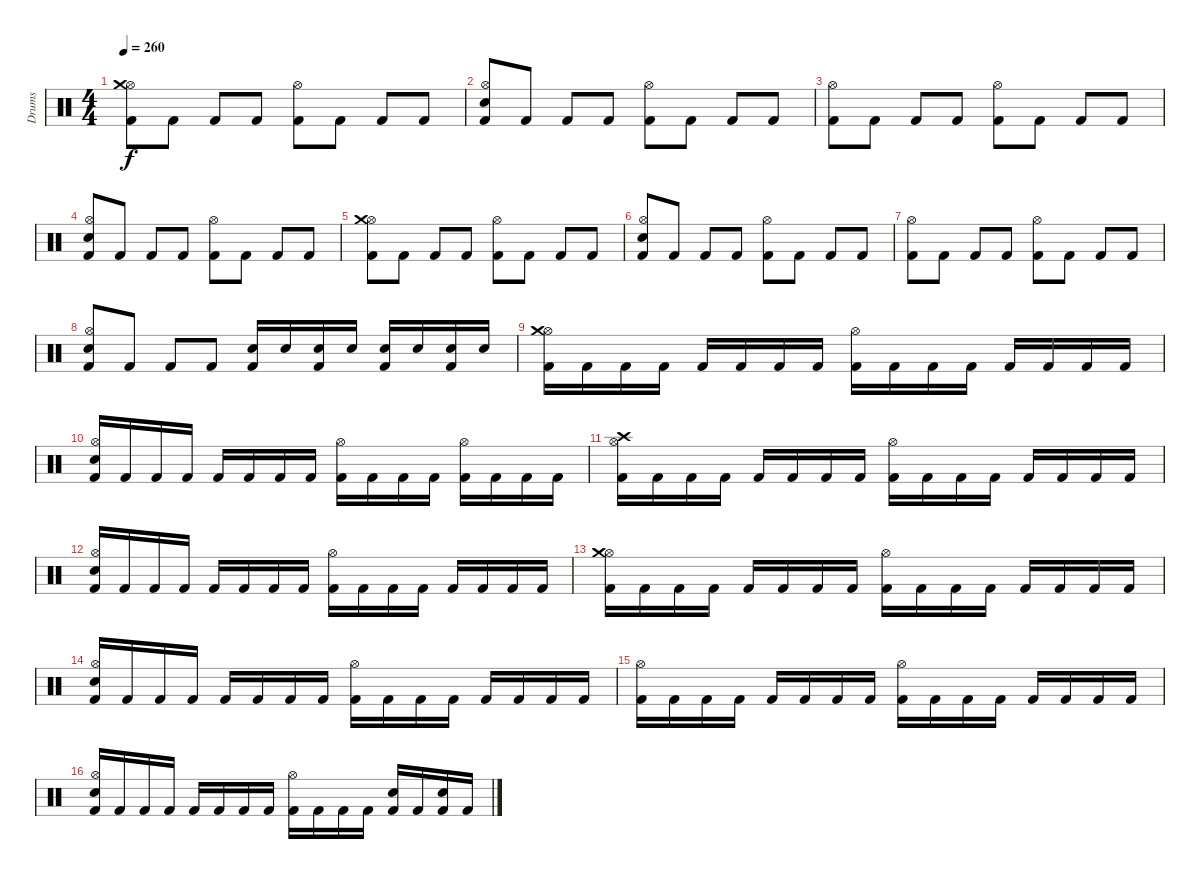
\track ("Drums" "Drums") {instrument percussion}
\staff {score}
\articulation defaults
\ts (4 4)
\tempo 260
\clef neutral
\ks c
("Kick (hit) 2" "Hi-Hat (open)" "Crash medium (hit)").8{dy f} "Kick (hit) 2".8 "Kick (hit) 2".8 "Kick (hit) 2".8 ("Kick (hit) 2" "Hi-Hat (open)").8 "Kick (hit) 2".8 "Kick (hit) 2".8 "Kick (hit) 2".8 |
("Kick (hit) 2" "Electric Snare (hit)" "Hi-Hat (open)").8 "Kick (hit) 2".8 "Kick (hit) 2".8 "Kick (hit) 2".8 ("Kick (hit) 2" "Hi-Hat (open)").8 "Kick (hit) 2".8 "Kick (hit) 2".8 "Kick (hit) 2".8 |
("Kick (hit) 2" "Hi-Hat (open)").8 "Kick (hit) 2".8 "Kick (hit) 2".8 "Kick (hit) 2".8 ("Kick (hit) 2" "Hi-Hat (open)").8 "Kick (hit) 2".8 "Kick (hit) 2".8 "Kick (hit) 2".8 |
("Kick (hit) 2" "Electric Snare (hit)" "Hi-Hat (open)").8 "Kick (hit) 2".8 "Kick (hit) 2".8 "Kick (hit) 2".8 ("Kick (hit) 2" "Hi-Hat (open)").8 "Kick (hit) 2".8 "Kick (hit) 2".8 "Kick (hit) 2".8 |
("Kick (hit) 2" "Hi-Hat (open)" "Crash medium (hit)").8 "Kick (hit) 2".8 "Kick (hit) 2".8 "Kick (hit) 2".8 ("Kick (hit) 2" "Hi-Hat (open)").8 "Kick (hit) 2".8 "Kick (hit) 2".8 "Kick (hit) 2".8 |
("Kick (hit) 2" "Electric Snare (hit)" "Hi-Hat (open)").8 "Kick (hit) 2".8 "Kick (hit) 2".8 "Kick (hit) 2".8 ("Kick (hit) 2" "Hi-Hat (open)").8 "Kick (hit) 2".8 "Kick (hit) 2".8 "Kick (hit) 2".8 |
("Kick (hit) 2" "Hi-Hat (open)").8 "Kick (hit) 2".8 "Kick (hit) 2".8 "Kick (hit) 2".8 ("Kick (hit) 2" "Hi-Hat (open)").8 "Kick (hit) 2".8 "Kick (hit) 2".8 "Kick (hit) 2".8 |
("Kick (hit) 2" "Electric Snare (hit)" "Hi-Hat (open)").8 "Kick (hit) 2".8 "Kick (hit) 2".8 "Kick (hit) 2".8 ("Kick (hit) 2" "Electric Snare (hit)").16 "Electric Snare (hit)".16 ("Kick (hit) 2" "Electric Snare (hit)").16 "Electric Snare (hit)".16 ("Kick (hit) 2" "Electric Snare (hit)").16 "Electric Snare (hit)".16 ("Kick (hit) 2" "Electric Snare (hit)").16 "Electric Snare (hit)".16 |
("Kick (hit) 2" "Hi-Hat (open)" "Crash medium (hit)").16 "Kick (hit) 2".16 "Kick (hit) 2".16 "Kick (hit) 2".16 "Kick (hit) 2".16 "Kick (hit) 2".16 "Kick (hit) 2".16 "Kick (hit) 2".16 ("Kick (hit) 2" "Hi-Hat (open)").16 "Kick (hit) 2".16 "Kick (hit) 2".16 "Kick (hit) 2".16 "Kick (hit) 2".16 "Kick (hit) 2".16 "Kick (hit) 2".16 "Kick (hit) 2".16 |
("Kick (hit) 2" "Electric Snare (hit)" "Hi-Hat (open)").16 "Kick (hit) 2".16 "Kick (hit) 2".16 "Kick (hit) 2".16 "Kick (hit) 2".16 "Kick (hit) 2".16 "Kick (hit) 2".16 "Kick (hit) 2".16 ("Kick (hit) 2" "Hi-Hat (open)").16 "Kick (hit) 2".16 "Kick (hit) 2".16 "Kick (hit) 2".16 ("Kick (hit) 2" "Hi-Hat (open)").16 "Kick (hit) 2".16 "Kick (hit) 2".16 "Kick (hit) 2".16 |
("Kick (hit) 2" "Hi-Hat (open)" "Crash high (hit)").16 "Kick (hit) 2".16 "Kick (hit) 2".16 "Kick (hit) 2".16 "Kick (hit) 2".16 "Kick (hit) 2".16 "Kick (hit) 2".16 "Kick (hit) 2".16 ("Kick (hit) 2" "Hi-Hat (open)").16 "Kick (hit) 2".16 "Kick (hit) 2".16 "Kick (hit) 2".16 "Kick (hit) 2".16 "Kick (hit) 2".16 "Kick (hit) 2".16 "Kick (hit) 2".16 |
("Kick (hit) 2" "Electric Snare (hit)" "Hi-Hat (open)").16 "Kick (hit) 2".16 "Kick (hit) 2".16 "Kick (hit) 2".16 "Kick (hit) 2".16 "Kick (hit) 2".16 "Kick (hit) 2".16 "Kick (hit) 2".16 ("Kick (hit) 2" "Hi-Hat (open)").16 "Kick (hit) 2".16 "Kick (hit) 2".16 "Kick (hit) 2".16 "Kick (hit) 2".16 "Kick (hit) 2".16 "Kick (hit) 2".16 "Kick (hit) 2".16 |
("Kick (hit) 2" "Hi-Hat (open)" "Crash medium (hit)").16 "Kick (hit) 2".16 "Kick (hit) 2".16 "Kick (hit) 2".16 "Kick (hit) 2".16 "Kick (hit) 2".16 "Kick (hit) 2".16 "Kick (hit) 2".16 ("Kick (hit) 2" "Hi-Hat (open)").16 "Kick (hit) 2".16 "Kick (hit) 2".16 "Kick (hit) 2".16 "Kick (hit) 2".16 "Kick (hit) 2".16 "Kick (hit) 2".16 "Kick (hit) 2".16 |
("Kick (hit) 2" "Electric Snare (hit)" "Hi-Hat (open)").16 "Kick (hit) 2".16 "Kick (hit) 2".16 "Kick (hit) 2".16 "Kick (hit) 2".16 "Kick (hit) 2".16 "Kick (hit) 2".16 "Kick (hit) 2".16 ("Kick (hit) 2" "Hi-Hat (open)").16 "Kick (hit) 2".16 "Kick (hit) 2".16 "Kick (hit) 2".16 "Kick (hit) 2".16 "Kick (hit) 2".16 "Kick (hit) 2".16 "Kick (hit) 2".16 |
("Kick (hit) 2" "Hi-Hat (open)").16 "Kick (hit) 2".16 "Kick (hit) 2".16 "Kick (hit) 2".16 "Kick (hit) 2".16 "Kick (hit) 2".16 "Kick (hit) 2".16 "Kick (hit) 2".16 ("Kick (hit) 2" "Hi-Hat (open)").16 "Kick (hit) 2".16 "Kick (hit) 2".16 "Kick (hit) 2".16 "Kick (hit) 2".16 "Kick (hit) 2".16 "Kick (hit) 2".16 "Kick (hit) 2".16 |
("Kick (hit) 2" "Electric Snare (hit)" "Hi-Hat (open)").16 "Kick (hit) 2".16 "Kick (hit) 2".16 "Kick (hit) 2".16 "Kick (hit) 2".16 "Kick (hit) 2".16 "Kick (hit) 2".16 "Kick (hit) 2".16 ("Kick (hit) 2" "Hi-Hat (open)").16 "Kick (hit) 2".16 "Kick (hit) 2".16 "Kick (hit) 2".16 ("Kick (hit) 2" "Electric Snare (hit)").16 "Kick (hit) 2".16 ("Kick (hit) 2" "Electric Snare (hit)").16 "Kick (hit) 2".16
